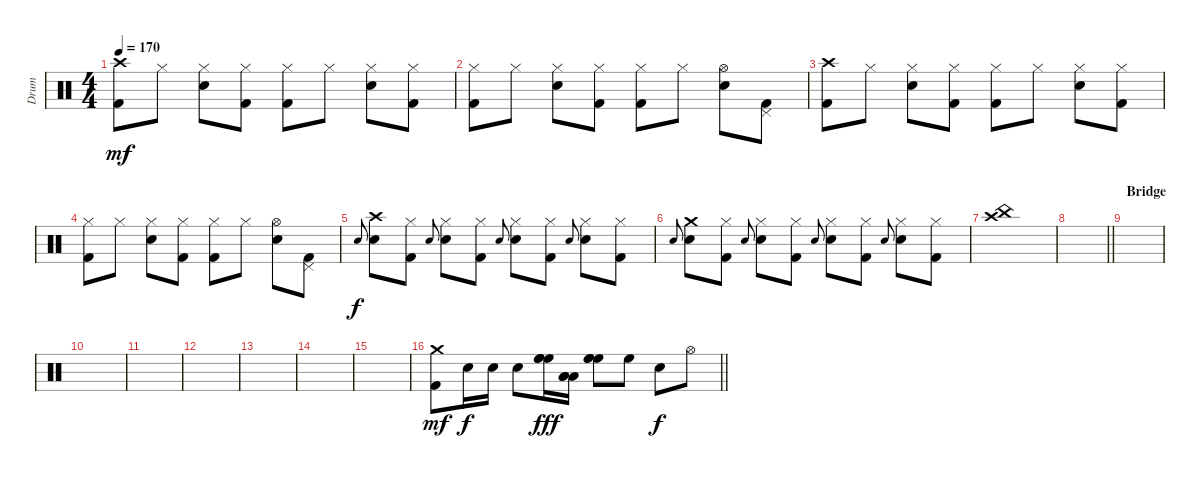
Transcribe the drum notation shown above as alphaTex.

\track ("Drum" "Drum") {instrument percussion}
\staff {score}
\articulation defaults
\ts (4 4)
\tempo 170
\clef neutral
\ks c
("Crash high (hit)" "Kick (hit) 2").8{dy mf} "Hi-Hat (closed)".8 ("Hi-Hat (closed)" "Electric Snare (hit)").8 ("Hi-Hat (closed)" "Kick (hit) 2").8 ("Hi-Hat (closed)" "Kick (hit) 2").8 "Hi-Hat (closed)".8 ("Hi-Hat (closed)" "Electric Snare (hit)").8 ("Hi-Hat (closed)" "Kick (hit) 2").8 |
("Hi-Hat (closed)" "Kick (hit) 2").8 "Hi-Hat (closed)".8 ("Hi-Hat (closed)" "Electric Snare (hit)").8 ("Hi-Hat (closed)" "Kick (hit) 2").8 ("Hi-Hat (closed)" "Kick (hit) 2").8 "Hi-Hat (closed)".8 ("Hi-Hat (open)" "Electric Snare (hit)").8 ("Pedal Hi-Hat (hit)" "Kick (hit) 2").8 |
("Crash high (hit)" "Kick (hit) 2").8 "Hi-Hat (closed)".8 ("Hi-Hat (closed)" "Electric Snare (hit)").8 ("Hi-Hat (closed)" "Kick (hit) 2").8 ("Hi-Hat (closed)" "Kick (hit) 2").8 "Hi-Hat (closed)".8 ("Hi-Hat (closed)" "Electric Snare (hit)").8 ("Hi-Hat (closed)" "Kick (hit) 2").8 |
("Hi-Hat (closed)" "Kick (hit) 2").8 "Hi-Hat (closed)".8 ("Hi-Hat (closed)" "Electric Snare (hit)").8 ("Hi-Hat (closed)" "Kick (hit) 2").8 ("Hi-Hat (closed)" "Kick (hit) 2").8 "Hi-Hat (closed)".8 ("Hi-Hat (open)" "Electric Snare (hit)").8 ("Pedal Hi-Hat (hit)" "Kick (hit) 2").8 |
"Electric Snare (hit)".8{gr onbeat dy f} ("Crash high (hit)" "Electric Snare (hit)").8 ("Hi-Hat (closed)" "Kick (hit) 2").8 "Electric Snare (hit)".8{gr onbeat} ("Hi-Hat (closed)" "Electric Snare (hit)").8 ("Hi-Hat (closed)" "Kick (hit) 2").8 "Electric Snare (hit)".8{gr onbeat} ("Hi-Hat (closed)" "Electric Snare (hit)").8 ("Hi-Hat (closed)" "Kick (hit) 2").8 "Electric Snare (hit)".8{gr onbeat} ("Hi-Hat (closed)" "Electric Snare (hit)").8 ("Hi-Hat (closed)" "Kick (hit) 2").8 |
"Electric Snare (hit)".8{gr onbeat} ("Crash medium (hit)" "Electric Snare (hit)").8 ("Hi-Hat (closed)" "Kick (hit) 2").8 "Electric Snare (hit)".8{gr onbeat} ("Hi-Hat (closed)" "Electric Snare (hit)").8 ("Hi-Hat (closed)" "Kick (hit) 2").8 "Electric Snare (hit)".8{gr onbeat} ("Hi-Hat (closed)" "Electric Snare (hit)").8 ("Hi-Hat (closed)" "Kick (hit) 2").8 "Electric Snare (hit)".8{gr onbeat} ("Hi-Hat (closed)" "Electric Snare (hit)").8 ("Hi-Hat (closed)" "Kick (hit) 2").8 |
("Crash high (hit)" "China (hit)").1 |
\barLineRight lightlight
|
\section ("" "Bridge")
|
|
|
|
|
|
|
\barLineRight lightlight
("Crash medium (hit)" "Kick (hit) 2").8{dy mf} "Electric Snare (hit)".16{dy f} "Electric Snare (hit)".16 "Electric Snare (hit)".8 ("High Floor Tom (hit)" "High Floor Tom (hit)" "High Floor Tom (hit)").16{dy fff} ("Low Tom (hit)" "Low Tom (hit)" "Low Tom (hit)").16 ("High Floor Tom (hit)" "High Floor Tom (hit)" "High Floor Tom (hit)").8 "High Floor Tom (hit)".8 "Electric Snare (hit)".8{dy f} "Hi-Hat (open)".8
